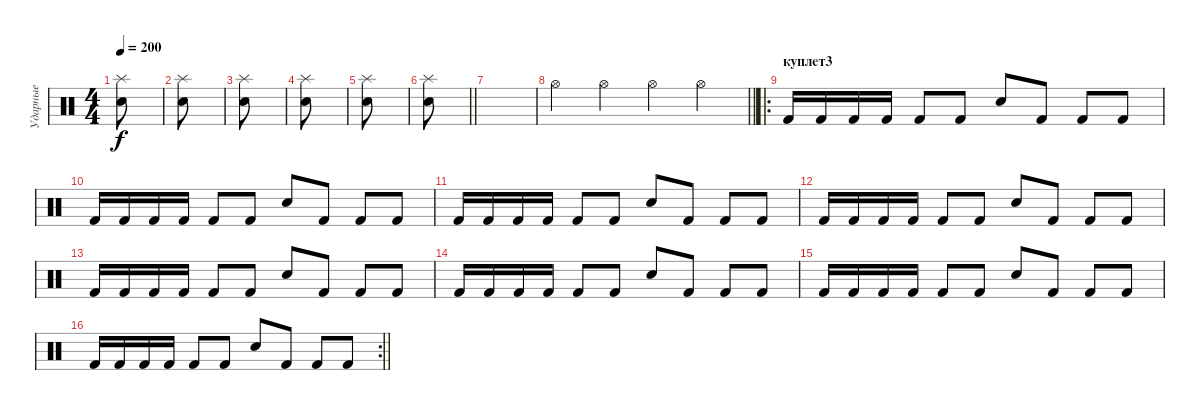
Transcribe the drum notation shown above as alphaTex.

\track ("Ударные" "Ударные") {instrument percussion}
\staff {score}
\articulation defaults
\ts (4 4)
\tempo 200
\clef neutral
\ks c
("Splash (hit)" "Snare (hit) 2").8{dy f} |
("Splash (hit)" "Snare (hit) 2").8 |
("Splash (hit)" "Snare (hit) 2").8 |
("Splash (hit)" "Snare (hit) 2").8 |
("Splash (hit)" "Snare (hit) 2").8 |
\barLineRight lightlight
("Splash (hit)" "Snare (hit) 2").8 |
|
\barLineRight lightlight "Hi-Hat (open)".4 "Hi-Hat (open)".4 "Hi-Hat (open)".4 "Hi-Hat (open)".4
|
\ro
\section ("" "куплет3")
"Kick (hit) 2".16 "Kick (hit) 2".16 "Kick (hit) 2".16 "Kick (hit) 2".16 "Kick (hit) 2".8 "Kick (hit) 2".8 "Snare (hit) 2".8 "Kick (hit) 2".8 "Kick (hit) 2".8 "Kick (hit) 2".8 |
"Kick (hit) 2".16 "Kick (hit) 2".16 "Kick (hit) 2".16 "Kick (hit) 2".16 "Kick (hit) 2".8 "Kick (hit) 2".8 "Snare (hit) 2".8 "Kick (hit) 2".8 "Kick (hit) 2".8 "Kick (hit) 2".8 |
"Kick (hit) 2".16 "Kick (hit) 2".16 "Kick (hit) 2".16 "Kick (hit) 2".16 "Kick (hit) 2".8 "Kick (hit) 2".8 "Snare (hit) 2".8 "Kick (hit) 2".8 "Kick (hit) 2".8 "Kick (hit) 2".8 |
"Kick (hit) 2".16 "Kick (hit) 2".16 "Kick (hit) 2".16 "Kick (hit) 2".16 "Kick (hit) 2".8 "Kick (hit) 2".8 "Snare (hit) 2".8 "Kick (hit) 2".8 "Kick (hit) 2".8 "Kick (hit) 2".8 |
"Kick (hit) 2".16 "Kick (hit) 2".16 "Kick (hit) 2".16 "Kick (hit) 2".16 "Kick (hit) 2".8 "Kick (hit) 2".8 "Snare (hit) 2".8 "Kick (hit) 2".8 "Kick (hit) 2".8 "Kick (hit) 2".8 |
"Kick (hit) 2".16 "Kick (hit) 2".16 "Kick (hit) 2".16 "Kick (hit) 2".16 "Kick (hit) 2".8 "Kick (hit) 2".8 "Snare (hit) 2".8 "Kick (hit) 2".8 "Kick (hit) 2".8 "Kick (hit) 2".8 |
"Kick (hit) 2".16 "Kick (hit) 2".16 "Kick (hit) 2".16 "Kick (hit) 2".16 "Kick (hit) 2".8 "Kick (hit) 2".8 "Snare (hit) 2".8 "Kick (hit) 2".8 "Kick (hit) 2".8 "Kick (hit) 2".8 |
\rc 2
\barLineRight lightlight "Kick (hit) 2".16 "Kick (hit) 2".16 "Kick (hit) 2".16 "Kick (hit) 2".16 "Kick (hit) 2".8 "Kick (hit) 2".8 "Snare (hit) 2".8 "Kick (hit) 2".8 "Kick (hit) 2".8 "Kick (hit) 2".8
